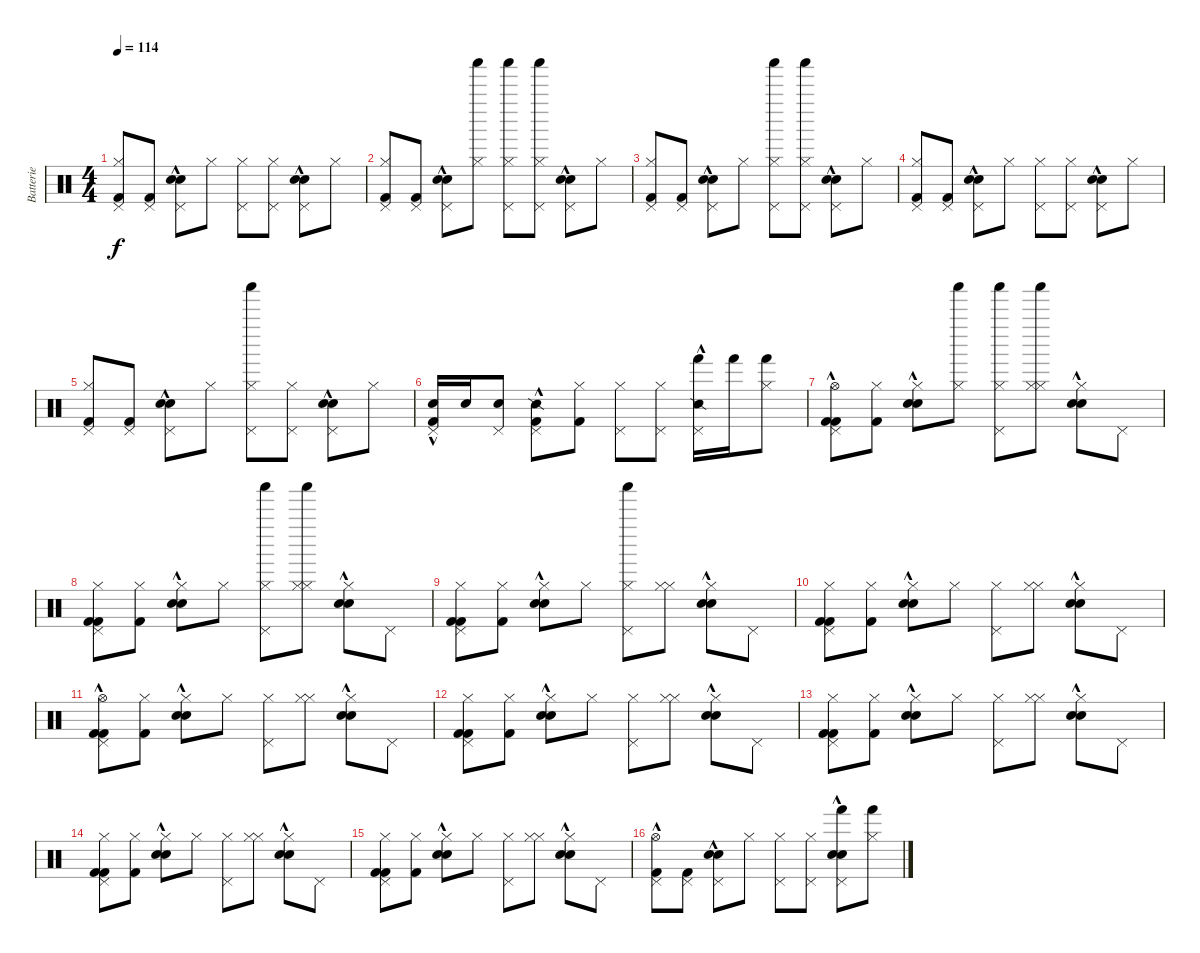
\track ("Batterie" "Batterie") {instrument percussion}
\staff {score}
\articulation defaults
\ts (4 4)
\tempo 114
\clef neutral
\ks c
("Kick (hit) 2" "Hi-Hat (closed)" "Pedal Hi-Hat (hit)").8{dy f} ("Kick (hit) 2" "Pedal Hi-Hat (hit)").8 ("Snare (hit) 2"{hac} "Electric Snare (hit)"{hac} "Pedal Hi-Hat (hit)").8 "Hi-Hat (closed)".8 ("Hi-Hat (closed)" "Pedal Hi-Hat (hit)").8 ("Hi-Hat (closed)" "Pedal Hi-Hat (hit)").8 ("Snare (hit) 2"{hac} "Electric Snare (hit)"{hac} "Pedal Hi-Hat (hit)").8 "Hi-Hat (closed)".8 |
("Kick (hit) 2" "Hi-Hat (closed)" "Pedal Hi-Hat (hit)").8 ("Kick (hit) 2" "Pedal Hi-Hat (hit)").8 ("Snare (hit) 2"{hac} "Electric Snare (hit)"{hac} "Pedal Hi-Hat (hit)").8 ("Hi-Hat (closed)" "Shaker (hit)").8 ("Hi-Hat (closed)" "Pedal Hi-Hat (hit)" "Shaker (hit)").8 ("Hi-Hat (closed)" "Pedal Hi-Hat (hit)" "Shaker (hit)").8 ("Snare (hit) 2"{hac} "Electric Snare (hit)"{hac} "Pedal Hi-Hat (hit)").8 "Hi-Hat (closed)".8 |
("Kick (hit) 2" "Hi-Hat (closed)" "Pedal Hi-Hat (hit)").8 ("Kick (hit) 2" "Pedal Hi-Hat (hit)").8 ("Snare (hit) 2"{hac} "Electric Snare (hit)"{hac} "Pedal Hi-Hat (hit)").8 "Hi-Hat (closed)".8 ("Hi-Hat (closed)" "Pedal Hi-Hat (hit)" "Shaker (hit)").8 ("Hi-Hat (closed)" "Pedal Hi-Hat (hit)" "Shaker (hit)").8 ("Snare (hit) 2"{hac} "Electric Snare (hit)"{hac} "Pedal Hi-Hat (hit)").8 "Hi-Hat (closed)".8 |
("Kick (hit) 2" "Hi-Hat (closed)" "Pedal Hi-Hat (hit)").8 ("Kick (hit) 2" "Pedal Hi-Hat (hit)").8 ("Snare (hit) 2"{hac} "Electric Snare (hit)"{hac} "Pedal Hi-Hat (hit)").8 "Hi-Hat (closed)".8 ("Hi-Hat (closed)" "Pedal Hi-Hat (hit)").8 ("Hi-Hat (closed)" "Pedal Hi-Hat (hit)").8 ("Snare (hit) 2"{hac} "Electric Snare (hit)"{hac} "Pedal Hi-Hat (hit)").8 "Hi-Hat (closed)".8 |
("Kick (hit) 2" "Hi-Hat (closed)" "Pedal Hi-Hat (hit)").8 ("Kick (hit) 2" "Pedal Hi-Hat (hit)").8 ("Snare (hit) 2"{hac} "Electric Snare (hit)"{hac} "Pedal Hi-Hat (hit)").8 "Hi-Hat (closed)".8 ("Hi-Hat (closed)" "Pedal Hi-Hat (hit)" "Shaker (hit)").8 ("Hi-Hat (closed)" "Pedal Hi-Hat (hit)").8 ("Snare (hit) 2"{hac} "Electric Snare (hit)"{hac} "Pedal Hi-Hat (hit)").8 "Hi-Hat (closed)".8 |
("Kick (hit) 2"{hac} "Snare (hit) 2" "Pedal Hi-Hat (hit)").16 "Snare (hit) 2".16 ("Electric Snare (hit)" "Pedal Hi-Hat (hit)").8 ("Snare (side stick) 2"{hac} "Kick (hit) 2" "Pedal Hi-Hat (hit)").8 ("Kick (hit) 2" "Hi-Hat (closed)").8 ("Hi-Hat (closed)" "Pedal Hi-Hat (hit)").8 ("Hi-Hat (closed)" "Pedal Hi-Hat (hit)").8 ("Snare (side stick) 2"{hac} "Pedal Hi-Hat (hit)" "Hand (hit)").16 "Hand (hit)".16 ("Hi-Hat (closed)" "Hand (hit)").8 |
("Kick (hit) 2" "Hi-Hat (open)"{hac} "Kick (hit) 2" "Pedal Hi-Hat (hit)").8 ("Kick (hit) 2" "Hi-Hat (closed)").8 ("Snare (hit) 2"{hac} "Electric Snare (hit)"{hac} "Hi-Hat (closed)").8 ("Hi-Hat (closed)" "Shaker (hit)").8 ("Hi-Hat (closed)" "Pedal Hi-Hat (hit)" "Shaker (hit)").8 ("Hi-Hat (closed)" "Hi-Hat (closed)" "Shaker (hit)").8 ("Snare (hit) 2"{hac} "Electric Snare (hit)"{hac} "Hi-Hat (closed)").8 "Pedal Hi-Hat (hit)".8 |
("Kick (hit) 2" "Hi-Hat (closed)" "Kick (hit) 2" "Pedal Hi-Hat (hit)").8 ("Kick (hit) 2" "Hi-Hat (closed)").8 ("Snare (hit) 2"{hac} "Electric Snare (hit)"{hac} "Hi-Hat (closed)").8 "Hi-Hat (closed)".8 ("Hi-Hat (closed)" "Pedal Hi-Hat (hit)" "Shaker (hit)").8 ("Hi-Hat (closed)" "Hi-Hat (closed)" "Shaker (hit)").8 ("Snare (hit) 2"{hac} "Electric Snare (hit)"{hac} "Hi-Hat (closed)").8 "Pedal Hi-Hat (hit)".8 |
("Kick (hit) 2" "Hi-Hat (closed)" "Kick (hit) 2" "Pedal Hi-Hat (hit)").8 ("Kick (hit) 2" "Hi-Hat (closed)").8 ("Snare (hit) 2"{hac} "Electric Snare (hit)"{hac} "Hi-Hat (closed)").8 "Hi-Hat (closed)".8 ("Hi-Hat (closed)" "Pedal Hi-Hat (hit)" "Shaker (hit)").8 ("Hi-Hat (closed)" "Hi-Hat (closed)").8 ("Snare (hit) 2"{hac} "Electric Snare (hit)"{hac} "Hi-Hat (closed)").8 "Pedal Hi-Hat (hit)".8 |
("Kick (hit) 2" "Hi-Hat (closed)" "Kick (hit) 2" "Pedal Hi-Hat (hit)").8 ("Kick (hit) 2" "Hi-Hat (closed)").8 ("Snare (hit) 2"{hac} "Electric Snare (hit)"{hac} "Hi-Hat (closed)").8 "Hi-Hat (closed)".8 ("Hi-Hat (closed)" "Pedal Hi-Hat (hit)").8 ("Hi-Hat (closed)" "Hi-Hat (closed)").8 ("Snare (hit) 2"{hac} "Electric Snare (hit)"{hac} "Hi-Hat (closed)").8 "Pedal Hi-Hat (hit)".8 |
("Kick (hit) 2" "Hi-Hat (open)"{hac} "Kick (hit) 2" "Pedal Hi-Hat (hit)").8 ("Kick (hit) 2" "Hi-Hat (closed)").8 ("Snare (hit) 2"{hac} "Electric Snare (hit)"{hac} "Hi-Hat (closed)").8 "Hi-Hat (closed)".8 ("Hi-Hat (closed)" "Pedal Hi-Hat (hit)").8 ("Hi-Hat (closed)" "Hi-Hat (closed)").8 ("Snare (hit) 2"{hac} "Electric Snare (hit)"{hac} "Hi-Hat (closed)").8 "Pedal Hi-Hat (hit)".8 |
("Kick (hit) 2" "Hi-Hat (closed)" "Kick (hit) 2" "Pedal Hi-Hat (hit)").8 ("Kick (hit) 2" "Hi-Hat (closed)").8 ("Snare (hit) 2"{hac} "Electric Snare (hit)"{hac} "Hi-Hat (closed)").8 "Hi-Hat (closed)".8 ("Hi-Hat (closed)" "Pedal Hi-Hat (hit)").8 ("Hi-Hat (closed)" "Hi-Hat (closed)").8 ("Snare (hit) 2"{hac} "Electric Snare (hit)"{hac} "Hi-Hat (closed)").8 "Pedal Hi-Hat (hit)".8 |
("Kick (hit) 2" "Hi-Hat (closed)" "Kick (hit) 2" "Pedal Hi-Hat (hit)").8 ("Kick (hit) 2" "Hi-Hat (closed)").8 ("Snare (hit) 2"{hac} "Electric Snare (hit)"{hac} "Hi-Hat (closed)").8 "Hi-Hat (closed)".8 ("Hi-Hat (closed)" "Pedal Hi-Hat (hit)").8 ("Hi-Hat (closed)" "Hi-Hat (closed)").8 ("Snare (hit) 2"{hac} "Electric Snare (hit)"{hac} "Hi-Hat (closed)").8 "Pedal Hi-Hat (hit)".8 |
("Kick (hit) 2" "Hi-Hat (closed)" "Kick (hit) 2" "Pedal Hi-Hat (hit)").8 ("Kick (hit) 2" "Hi-Hat (closed)").8 ("Snare (hit) 2"{hac} "Electric Snare (hit)"{hac} "Hi-Hat (closed)").8 "Hi-Hat (closed)".8 ("Hi-Hat (closed)" "Pedal Hi-Hat (hit)").8 ("Hi-Hat (closed)" "Hi-Hat (closed)").8 ("Snare (hit) 2"{hac} "Electric Snare (hit)"{hac} "Hi-Hat (closed)").8 "Pedal Hi-Hat (hit)".8 |
("Kick (hit) 2" "Hi-Hat (closed)" "Kick (hit) 2" "Pedal Hi-Hat (hit)").8 ("Kick (hit) 2" "Hi-Hat (closed)").8 ("Snare (hit) 2"{hac} "Electric Snare (hit)"{hac} "Hi-Hat (closed)").8 "Hi-Hat (closed)".8 ("Hi-Hat (closed)" "Pedal Hi-Hat (hit)").8 ("Hi-Hat (closed)" "Hi-Hat (closed)").8 ("Snare (hit) 2"{hac} "Electric Snare (hit)"{hac} "Hi-Hat (closed)").8 "Pedal Hi-Hat (hit)".8 |
("Kick (hit) 2" "Hi-Hat (open)"{hac} "Pedal Hi-Hat (hit)").8 ("Kick (hit) 2" "Pedal Hi-Hat (hit)").8 ("Snare (hit) 2"{hac} "Electric Snare (hit)"{hac} "Pedal Hi-Hat (hit)").8 "Hi-Hat (closed)".8 ("Hi-Hat (closed)" "Pedal Hi-Hat (hit)").8 ("Hi-Hat (closed)" "Pedal Hi-Hat (hit)").8 ("Snare (hit) 2"{hac} "Electric Snare (hit)"{hac} "Pedal Hi-Hat (hit)" "Hand (hit)").8 ("Hi-Hat (closed)" "Hand (hit)").8
